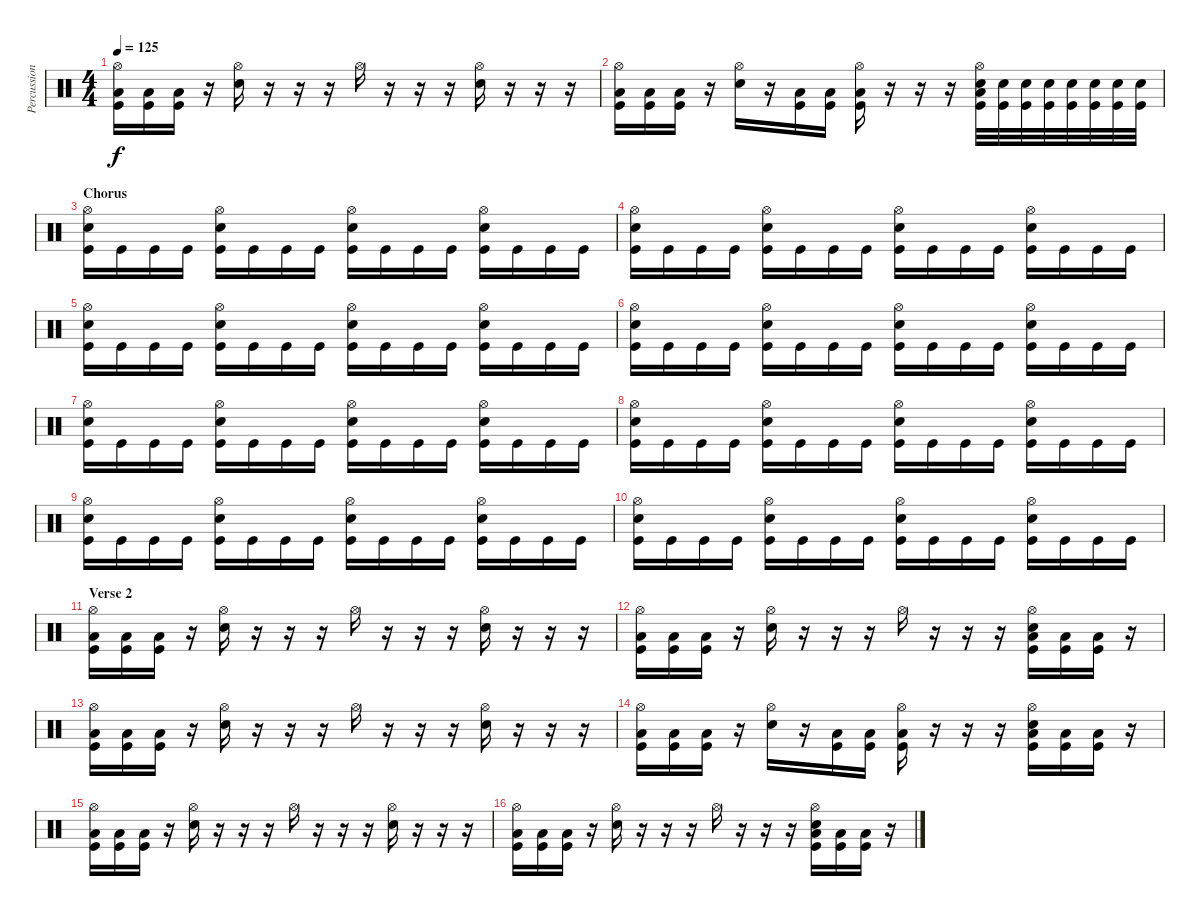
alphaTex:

\track ("Percussion" "Percussion") {instrument percussion}
\staff {score}
\articulation defaults
\ts (4 4)
\tempo 125
\clef neutral
\ks c
("Hi-Hat (open)" "Low Floor Tom (hit)" "Kick (hit)").16{dy f} ("Low Floor Tom (hit)" "Kick (hit)").16 ("Low Floor Tom (hit)" "Kick (hit)").16 r.16 ("Hi-Hat (open)" "Electric Snare (hit)").16 r.16 r.16 r.16 "Hi-Hat (open)".16 r.16 r.16 r.16 ("Hi-Hat (open)" "Electric Snare (hit)").16 r.16 r.16 r.16 |
("Hi-Hat (open)" "Low Floor Tom (hit)" "Kick (hit)").16 ("Low Floor Tom (hit)" "Kick (hit)").16 ("Low Floor Tom (hit)" "Kick (hit)").16 r.16 ("Hi-Hat (open)" "Electric Snare (hit)").16 r.16 ("Low Floor Tom (hit)" "Kick (hit)").16 ("Low Floor Tom (hit)" "Kick (hit)").16 ("Hi-Hat (open)" "Low Floor Tom (hit)" "Kick (hit)").16 r.16 r.16 r.16 ("Hi-Hat (open)" "Low Floor Tom (hit)" "Kick (hit)" "Electric Snare (hit)").32 ("Electric Snare (hit)" "Kick (hit)").32 ("Electric Snare (hit)" "Kick (hit)").32 ("Electric Snare (hit)" "Kick (hit)").32 ("Electric Snare (hit)" "Kick (hit)").32 ("Electric Snare (hit)" "Kick (hit)").32 ("Electric Snare (hit)" "Kick (hit)").32 ("Electric Snare (hit)" "Kick (hit)").32 |
\section ("" "Chorus")
("Kick (hit)" "Electric Snare (hit)" "Hi-Hat (open)").16 "Kick (hit)".16 "Kick (hit)".16 "Kick (hit)".16 ("Kick (hit)" "Electric Snare (hit)" "Hi-Hat (open)").16 "Kick (hit)".16 "Kick (hit)".16 "Kick (hit)".16 ("Kick (hit)" "Electric Snare (hit)" "Hi-Hat (open)").16 "Kick (hit)".16 "Kick (hit)".16 "Kick (hit)".16 ("Kick (hit)" "Electric Snare (hit)" "Hi-Hat (open)").16 "Kick (hit)".16 "Kick (hit)".16 "Kick (hit)".16 |
("Kick (hit)" "Electric Snare (hit)" "Hi-Hat (open)").16 "Kick (hit)".16 "Kick (hit)".16 "Kick (hit)".16 ("Kick (hit)" "Electric Snare (hit)" "Hi-Hat (open)").16 "Kick (hit)".16 "Kick (hit)".16 "Kick (hit)".16 ("Kick (hit)" "Electric Snare (hit)" "Hi-Hat (open)").16 "Kick (hit)".16 "Kick (hit)".16 "Kick (hit)".16 ("Kick (hit)" "Electric Snare (hit)" "Hi-Hat (open)").16 "Kick (hit)".16 "Kick (hit)".16 "Kick (hit)".16 |
("Kick (hit)" "Electric Snare (hit)" "Hi-Hat (open)").16 "Kick (hit)".16 "Kick (hit)".16 "Kick (hit)".16 ("Kick (hit)" "Electric Snare (hit)" "Hi-Hat (open)").16 "Kick (hit)".16 "Kick (hit)".16 "Kick (hit)".16 ("Kick (hit)" "Electric Snare (hit)" "Hi-Hat (open)").16 "Kick (hit)".16 "Kick (hit)".16 "Kick (hit)".16 ("Kick (hit)" "Electric Snare (hit)" "Hi-Hat (open)").16 "Kick (hit)".16 "Kick (hit)".16 "Kick (hit)".16 |
("Kick (hit)" "Electric Snare (hit)" "Hi-Hat (open)").16 "Kick (hit)".16 "Kick (hit)".16 "Kick (hit)".16 ("Kick (hit)" "Electric Snare (hit)" "Hi-Hat (open)").16 "Kick (hit)".16 "Kick (hit)".16 "Kick (hit)".16 ("Kick (hit)" "Electric Snare (hit)" "Hi-Hat (open)").16 "Kick (hit)".16 "Kick (hit)".16 "Kick (hit)".16 ("Kick (hit)" "Electric Snare (hit)" "Hi-Hat (open)").16 "Kick (hit)".16 "Kick (hit)".16 "Kick (hit)".16 |
("Kick (hit)" "Electric Snare (hit)" "Hi-Hat (open)").16 "Kick (hit)".16 "Kick (hit)".16 "Kick (hit)".16 ("Kick (hit)" "Electric Snare (hit)" "Hi-Hat (open)").16 "Kick (hit)".16 "Kick (hit)".16 "Kick (hit)".16 ("Kick (hit)" "Electric Snare (hit)" "Hi-Hat (open)").16 "Kick (hit)".16 "Kick (hit)".16 "Kick (hit)".16 ("Kick (hit)" "Electric Snare (hit)" "Hi-Hat (open)").16 "Kick (hit)".16 "Kick (hit)".16 "Kick (hit)".16 |
("Kick (hit)" "Electric Snare (hit)" "Hi-Hat (open)").16 "Kick (hit)".16 "Kick (hit)".16 "Kick (hit)".16 ("Kick (hit)" "Electric Snare (hit)" "Hi-Hat (open)").16 "Kick (hit)".16 "Kick (hit)".16 "Kick (hit)".16 ("Kick (hit)" "Electric Snare (hit)" "Hi-Hat (open)").16 "Kick (hit)".16 "Kick (hit)".16 "Kick (hit)".16 ("Kick (hit)" "Electric Snare (hit)" "Hi-Hat (open)").16 "Kick (hit)".16 "Kick (hit)".16 "Kick (hit)".16 |
("Kick (hit)" "Electric Snare (hit)" "Hi-Hat (open)").16 "Kick (hit)".16 "Kick (hit)".16 "Kick (hit)".16 ("Kick (hit)" "Electric Snare (hit)" "Hi-Hat (open)").16 "Kick (hit)".16 "Kick (hit)".16 "Kick (hit)".16 ("Kick (hit)" "Electric Snare (hit)" "Hi-Hat (open)").16 "Kick (hit)".16 "Kick (hit)".16 "Kick (hit)".16 ("Kick (hit)" "Electric Snare (hit)" "Hi-Hat (open)").16 "Kick (hit)".16 "Kick (hit)".16 "Kick (hit)".16 |
("Kick (hit)" "Electric Snare (hit)" "Hi-Hat (open)").16 "Kick (hit)".16 "Kick (hit)".16 "Kick (hit)".16 ("Kick (hit)" "Electric Snare (hit)" "Hi-Hat (open)").16 "Kick (hit)".16 "Kick (hit)".16 "Kick (hit)".16 ("Kick (hit)" "Electric Snare (hit)" "Hi-Hat (open)").16 "Kick (hit)".16 "Kick (hit)".16 "Kick (hit)".16 ("Kick (hit)" "Electric Snare (hit)" "Hi-Hat (open)").16 "Kick (hit)".16 "Kick (hit)".16 "Kick (hit)".16 |
\section ("" "Verse 2")
("Hi-Hat (open)" "Low Floor Tom (hit)" "Kick (hit)").16 ("Low Floor Tom (hit)" "Kick (hit)").16 ("Low Floor Tom (hit)" "Kick (hit)").16 r.16 ("Hi-Hat (open)" "Electric Snare (hit)").16 r.16 r.16 r.16 "Hi-Hat (open)".16 r.16 r.16 r.16 ("Hi-Hat (open)" "Electric Snare (hit)").16 r.16 r.16 r.16 |
("Hi-Hat (open)" "Low Floor Tom (hit)" "Kick (hit)").16 ("Low Floor Tom (hit)" "Kick (hit)").16 ("Low Floor Tom (hit)" "Kick (hit)").16 r.16 ("Hi-Hat (open)" "Electric Snare (hit)").16 r.16 r.16 r.16 "Hi-Hat (open)".16 r.16 r.16 r.16 ("Hi-Hat (open)" "Low Floor Tom (hit)" "Kick (hit)" "Electric Snare (hit)").16 ("Low Floor Tom (hit)" "Kick (hit)").16 ("Low Floor Tom (hit)" "Kick (hit)").16 r.16 |
("Hi-Hat (open)" "Low Floor Tom (hit)" "Kick (hit)").16 ("Low Floor Tom (hit)" "Kick (hit)").16 ("Low Floor Tom (hit)" "Kick (hit)").16 r.16 ("Hi-Hat (open)" "Electric Snare (hit)").16 r.16 r.16 r.16 "Hi-Hat (open)".16 r.16 r.16 r.16 ("Hi-Hat (open)" "Electric Snare (hit)").16 r.16 r.16 r.16 |
("Hi-Hat (open)" "Low Floor Tom (hit)" "Kick (hit)").16 ("Low Floor Tom (hit)" "Kick (hit)").16 ("Low Floor Tom (hit)" "Kick (hit)").16 r.16 ("Hi-Hat (open)" "Electric Snare (hit)").16 r.16 ("Low Floor Tom (hit)" "Kick (hit)").16 ("Low Floor Tom (hit)" "Kick (hit)").16 ("Hi-Hat (open)" "Low Floor Tom (hit)" "Kick (hit)").16 r.16 r.16 r.16 ("Hi-Hat (open)" "Low Floor Tom (hit)" "Kick (hit)" "Electric Snare (hit)").16 ("Low Floor Tom (hit)" "Kick (hit)").16 ("Low Floor Tom (hit)" "Kick (hit)").16 r.16 |
("Hi-Hat (open)" "Low Floor Tom (hit)" "Kick (hit)").16 ("Low Floor Tom (hit)" "Kick (hit)").16 ("Low Floor Tom (hit)" "Kick (hit)").16 r.16 ("Hi-Hat (open)" "Electric Snare (hit)").16 r.16 r.16 r.16 "Hi-Hat (open)".16 r.16 r.16 r.16 ("Hi-Hat (open)" "Electric Snare (hit)").16 r.16 r.16 r.16 |
("Hi-Hat (open)" "Low Floor Tom (hit)" "Kick (hit)").16 ("Low Floor Tom (hit)" "Kick (hit)").16 ("Low Floor Tom (hit)" "Kick (hit)").16 r.16 ("Hi-Hat (open)" "Electric Snare (hit)").16 r.16 r.16 r.16 "Hi-Hat (open)".16 r.16 r.16 r.16 ("Hi-Hat (open)" "Low Floor Tom (hit)" "Kick (hit)" "Electric Snare (hit)").16 ("Low Floor Tom (hit)" "Kick (hit)").16 ("Low Floor Tom (hit)" "Kick (hit)").16 r.16
